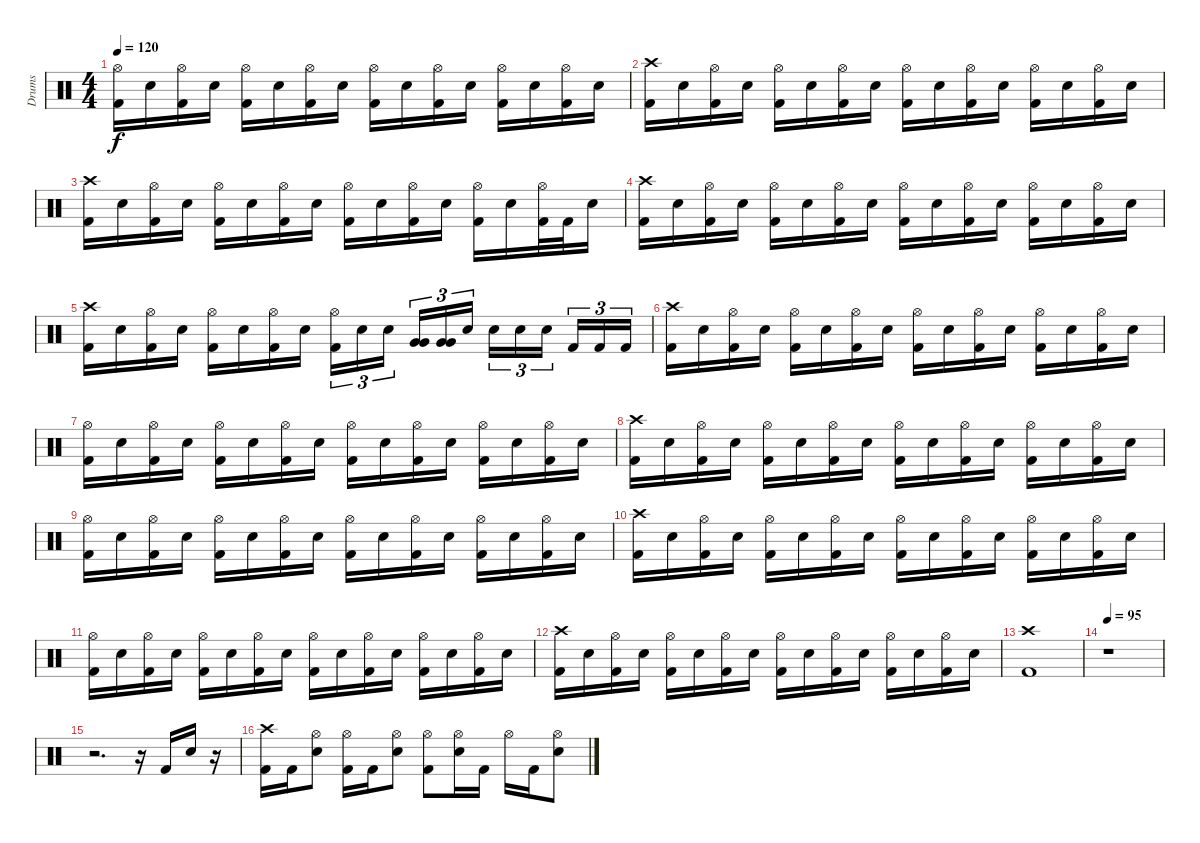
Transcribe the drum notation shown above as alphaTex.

\track ("Drums" "Drums") {instrument percussion}
\staff {score}
\articulation defaults
\ts (4 4)
\tempo 120
\clef neutral
\ks c
("Hi-Hat (open)" "Kick (hit) 2").16{dy f} "Electric Snare (hit)".16 ("Hi-Hat (open)" "Kick (hit) 2").16 "Electric Snare (hit)".16 ("Hi-Hat (open)" "Kick (hit) 2").16 "Electric Snare (hit)".16 ("Hi-Hat (open)" "Kick (hit) 2").16 "Electric Snare (hit)".16 ("Hi-Hat (open)" "Kick (hit) 2").16 "Electric Snare (hit)".16 ("Hi-Hat (open)" "Kick (hit) 2").16 "Electric Snare (hit)".16 ("Hi-Hat (open)" "Kick (hit) 2").16 "Electric Snare (hit)".16 ("Hi-Hat (open)" "Kick (hit) 2").16 "Electric Snare (hit)".16 |
("Crash high (hit)" "Kick (hit) 2").16 "Electric Snare (hit)".16 ("Hi-Hat (open)" "Kick (hit) 2").16 "Electric Snare (hit)".16 ("Hi-Hat (open)" "Kick (hit) 2").16 "Electric Snare (hit)".16 ("Hi-Hat (open)" "Kick (hit) 2").16 "Electric Snare (hit)".16 ("Hi-Hat (open)" "Kick (hit) 2").16 "Electric Snare (hit)".16 ("Hi-Hat (open)" "Kick (hit) 2").16 "Electric Snare (hit)".16 ("Hi-Hat (open)" "Kick (hit) 2").16 "Electric Snare (hit)".16 ("Hi-Hat (open)" "Kick (hit) 2").16 "Electric Snare (hit)".16 |
("Crash high (hit)" "Kick (hit) 2").16 "Electric Snare (hit)".16 ("Hi-Hat (open)" "Kick (hit) 2").16 "Electric Snare (hit)".16 ("Hi-Hat (open)" "Kick (hit) 2").16 "Electric Snare (hit)".16 ("Hi-Hat (open)" "Kick (hit) 2").16 "Electric Snare (hit)".16 ("Hi-Hat (open)" "Kick (hit) 2").16 "Electric Snare (hit)".16 ("Hi-Hat (open)" "Kick (hit) 2").16 "Electric Snare (hit)".16 ("Hi-Hat (open)" "Kick (hit) 2").16 "Electric Snare (hit)".16 ("Hi-Hat (open)" "Kick (hit) 2").32 "Kick (hit) 2".32 "Electric Snare (hit)".16 |
("Crash high (hit)" "Kick (hit) 2").16 "Electric Snare (hit)".16 ("Hi-Hat (open)" "Kick (hit) 2").16 "Electric Snare (hit)".16 ("Hi-Hat (open)" "Kick (hit) 2").16 "Electric Snare (hit)".16 ("Hi-Hat (open)" "Kick (hit) 2").16 "Electric Snare (hit)".16 ("Hi-Hat (open)" "Kick (hit) 2").16 "Electric Snare (hit)".16 ("Hi-Hat (open)" "Kick (hit) 2").16 "Electric Snare (hit)".16 ("Hi-Hat (open)" "Kick (hit) 2").16 "Electric Snare (hit)".16 ("Hi-Hat (open)" "Kick (hit) 2").16 "Electric Snare (hit)".16 |
("Crash high (hit)" "Kick (hit) 2").16 "Electric Snare (hit)".16 ("Hi-Hat (open)" "Kick (hit) 2").16 "Electric Snare (hit)".16 ("Hi-Hat (open)" "Kick (hit) 2").16 "Electric Snare (hit)".16 ("Hi-Hat (open)" "Kick (hit) 2").16 "Electric Snare (hit)".16 ("Hi-Hat (open)" "Kick (hit) 2").16{tu (3 2)} "Electric Snare (hit)".16{tu (3 2)} "Electric Snare (hit)".16{tu (3 2)} ("Very Low Tom (hit)" "Very Low Tom (hit)").16{tu (3 2)} ("Very Low Tom (hit)" "Very Low Tom (hit)").16{tu (3 2)} "Electric Snare (hit)".16{tu (3 2)} "Electric Snare (hit)".16{tu (3 2)} "Electric Snare (hit)".16{tu (3 2)} "Electric Snare (hit)".16{tu (3 2)} "Kick (hit) 2".16{tu (3 2)} "Kick (hit) 2".16{tu (3 2)} "Kick (hit) 2".16{tu (3 2)} |
("Crash high (hit)" "Kick (hit) 2").16 "Electric Snare (hit)".16 ("Hi-Hat (open)" "Kick (hit) 2").16 "Electric Snare (hit)".16 ("Hi-Hat (open)" "Kick (hit) 2").16 "Electric Snare (hit)".16 ("Hi-Hat (open)" "Kick (hit) 2").16 "Electric Snare (hit)".16 ("Hi-Hat (open)" "Kick (hit) 2").16 "Electric Snare (hit)".16 ("Hi-Hat (open)" "Kick (hit) 2").16 "Electric Snare (hit)".16 ("Hi-Hat (open)" "Kick (hit) 2").16 "Electric Snare (hit)".16 ("Hi-Hat (open)" "Kick (hit) 2").16 "Electric Snare (hit)".16 |
("Hi-Hat (open)" "Kick (hit) 2").16 "Electric Snare (hit)".16 ("Hi-Hat (open)" "Kick (hit) 2").16 "Electric Snare (hit)".16 ("Hi-Hat (open)" "Kick (hit) 2").16 "Electric Snare (hit)".16 ("Hi-Hat (open)" "Kick (hit) 2").16 "Electric Snare (hit)".16 ("Hi-Hat (open)" "Kick (hit) 2").16 "Electric Snare (hit)".16 ("Hi-Hat (open)" "Kick (hit) 2").16 "Electric Snare (hit)".16 ("Hi-Hat (open)" "Kick (hit) 2").16 "Electric Snare (hit)".16 ("Hi-Hat (open)" "Kick (hit) 2").16 "Electric Snare (hit)".16 |
("Crash high (hit)" "Kick (hit) 2").16 "Electric Snare (hit)".16 ("Hi-Hat (open)" "Kick (hit) 2").16 "Electric Snare (hit)".16 ("Hi-Hat (open)" "Kick (hit) 2").16 "Electric Snare (hit)".16 ("Hi-Hat (open)" "Kick (hit) 2").16 "Electric Snare (hit)".16 ("Hi-Hat (open)" "Kick (hit) 2").16 "Electric Snare (hit)".16 ("Hi-Hat (open)" "Kick (hit) 2").16 "Electric Snare (hit)".16 ("Hi-Hat (open)" "Kick (hit) 2").16 "Electric Snare (hit)".16 ("Hi-Hat (open)" "Kick (hit) 2").16 "Electric Snare (hit)".16 |
("Hi-Hat (open)" "Kick (hit) 2").16 "Electric Snare (hit)".16 ("Hi-Hat (open)" "Kick (hit) 2").16 "Electric Snare (hit)".16 ("Hi-Hat (open)" "Kick (hit) 2").16 "Electric Snare (hit)".16 ("Hi-Hat (open)" "Kick (hit) 2").16 "Electric Snare (hit)".16 ("Hi-Hat (open)" "Kick (hit) 2").16 "Electric Snare (hit)".16 ("Hi-Hat (open)" "Kick (hit) 2").16 "Electric Snare (hit)".16 ("Hi-Hat (open)" "Kick (hit) 2").16 "Electric Snare (hit)".16 ("Hi-Hat (open)" "Kick (hit) 2").16 "Electric Snare (hit)".16 |
("Crash high (hit)" "Kick (hit) 2").16 "Electric Snare (hit)".16 ("Hi-Hat (open)" "Kick (hit) 2").16 "Electric Snare (hit)".16 ("Hi-Hat (open)" "Kick (hit) 2").16 "Electric Snare (hit)".16 ("Hi-Hat (open)" "Kick (hit) 2").16 "Electric Snare (hit)".16 ("Hi-Hat (open)" "Kick (hit) 2").16 "Electric Snare (hit)".16 ("Hi-Hat (open)" "Kick (hit) 2").16 "Electric Snare (hit)".16 ("Hi-Hat (open)" "Kick (hit) 2").16 "Electric Snare (hit)".16 ("Hi-Hat (open)" "Kick (hit) 2").16 "Electric Snare (hit)".16 |
("Hi-Hat (open)" "Kick (hit) 2").16 "Electric Snare (hit)".16 ("Hi-Hat (open)" "Kick (hit) 2").16 "Electric Snare (hit)".16 ("Hi-Hat (open)" "Kick (hit) 2").16 "Electric Snare (hit)".16 ("Hi-Hat (open)" "Kick (hit) 2").16 "Electric Snare (hit)".16 ("Hi-Hat (open)" "Kick (hit) 2").16 "Electric Snare (hit)".16 ("Hi-Hat (open)" "Kick (hit) 2").16 "Electric Snare (hit)".16 ("Hi-Hat (open)" "Kick (hit) 2").16 "Electric Snare (hit)".16 ("Hi-Hat (open)" "Kick (hit) 2").16 "Electric Snare (hit)".16 |
("Crash high (hit)" "Kick (hit) 2").16 "Electric Snare (hit)".16 ("Hi-Hat (open)" "Kick (hit) 2").16 "Electric Snare (hit)".16 ("Hi-Hat (open)" "Kick (hit) 2").16 "Electric Snare (hit)".16 ("Hi-Hat (open)" "Kick (hit) 2").16 "Electric Snare (hit)".16 ("Hi-Hat (open)" "Kick (hit) 2").16 "Electric Snare (hit)".16 ("Hi-Hat (open)" "Kick (hit) 2").16 "Electric Snare (hit)".16 ("Hi-Hat (open)" "Kick (hit) 2").16 "Electric Snare (hit)".16 ("Hi-Hat (open)" "Kick (hit) 2").16 "Electric Snare (hit)".16 |
("Crash high (hit)" "Kick (hit) 2").1 |
\tempo 95
r.1 |
r.2{d} r.16 "Kick (hit) 2".16 "Electric Snare (hit)".16 r.16 |
("Crash high (hit)" "Kick (hit) 2").16 "Kick (hit) 2".16 ("Hi-Hat (open)" "Electric Snare (hit)").8 ("Hi-Hat (open)" "Kick (hit) 2").16 "Kick (hit) 2".16 ("Hi-Hat (open)" "Electric Snare (hit)").8 ("Hi-Hat (open)" "Kick (hit) 2").8 ("Hi-Hat (open)" "Electric Snare (hit)").16 "Kick (hit) 2".16 "Hi-Hat (open)".16 "Kick (hit) 2".16 ("Hi-Hat (open)" "Electric Snare (hit)").8
